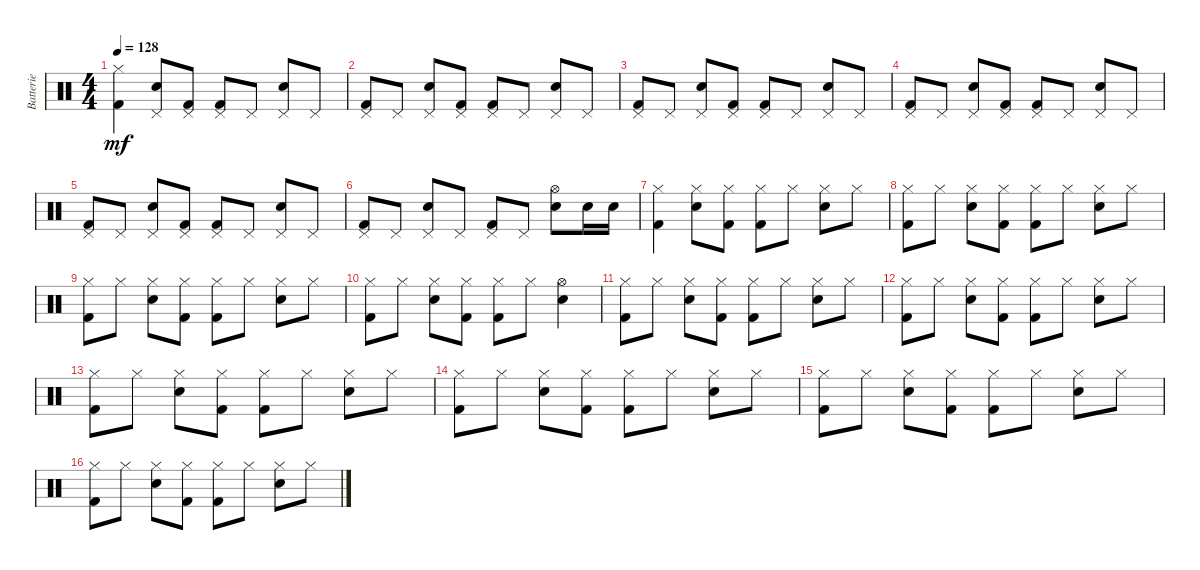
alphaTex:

\track ("Batterie" "Batterie") {instrument percussion}
\staff {score}
\articulation defaults
\ts (4 4)
\tempo 128
\clef neutral
\ks c
("Hi-Hat (closed)" "Kick (hit) 2").4{dy mf} ("Pedal Hi-Hat (hit)" "Snare (hit) 2").8 ("Pedal Hi-Hat (hit)" "Kick (hit) 2").8 ("Pedal Hi-Hat (hit)" "Kick (hit) 2").8 "Pedal Hi-Hat (hit)".8 ("Pedal Hi-Hat (hit)" "Snare (hit) 2").8 "Pedal Hi-Hat (hit)".8 |
("Pedal Hi-Hat (hit)" "Kick (hit) 2").8 "Pedal Hi-Hat (hit)".8 ("Pedal Hi-Hat (hit)" "Snare (hit) 2").8 ("Pedal Hi-Hat (hit)" "Kick (hit) 2").8 ("Pedal Hi-Hat (hit)" "Kick (hit) 2").8 "Pedal Hi-Hat (hit)".8 ("Pedal Hi-Hat (hit)" "Snare (hit) 2").8 "Pedal Hi-Hat (hit)".8 |
("Pedal Hi-Hat (hit)" "Kick (hit) 2").8 "Pedal Hi-Hat (hit)".8 ("Pedal Hi-Hat (hit)" "Snare (hit) 2").8 ("Pedal Hi-Hat (hit)" "Kick (hit) 2").8 ("Pedal Hi-Hat (hit)" "Kick (hit) 2").8 "Pedal Hi-Hat (hit)".8 ("Pedal Hi-Hat (hit)" "Snare (hit) 2").8 "Pedal Hi-Hat (hit)".8 |
("Pedal Hi-Hat (hit)" "Kick (hit) 2").8 "Pedal Hi-Hat (hit)".8 ("Pedal Hi-Hat (hit)" "Snare (hit) 2").8 ("Pedal Hi-Hat (hit)" "Kick (hit) 2").8 ("Pedal Hi-Hat (hit)" "Kick (hit) 2").8 "Pedal Hi-Hat (hit)".8 ("Pedal Hi-Hat (hit)" "Snare (hit) 2").8 "Pedal Hi-Hat (hit)".8 |
("Pedal Hi-Hat (hit)" "Kick (hit) 2").8 "Pedal Hi-Hat (hit)".8 ("Pedal Hi-Hat (hit)" "Snare (hit) 2").8 ("Pedal Hi-Hat (hit)" "Kick (hit) 2").8 ("Pedal Hi-Hat (hit)" "Kick (hit) 2").8 "Pedal Hi-Hat (hit)".8 ("Pedal Hi-Hat (hit)" "Snare (hit) 2").8 "Pedal Hi-Hat (hit)".8 |
("Pedal Hi-Hat (hit)" "Kick (hit) 2").8 "Pedal Hi-Hat (hit)".8 ("Pedal Hi-Hat (hit)" "Snare (hit) 2").8 "Pedal Hi-Hat (hit)".8 ("Pedal Hi-Hat (hit)" "Kick (hit) 2").8 "Pedal Hi-Hat (hit)".8 ("Hi-Hat (open)" "Snare (hit) 2").8 "Snare (hit) 2".16 "Snare (hit) 2".16 |
("Hi-Hat (closed)" "Kick (hit) 2").4 ("Hi-Hat (closed)" "Snare (hit) 2").8 ("Hi-Hat (closed)" "Kick (hit) 2").8 ("Hi-Hat (closed)" "Kick (hit) 2").8 "Hi-Hat (closed)".8 ("Hi-Hat (closed)" "Snare (hit) 2").8 "Hi-Hat (closed)".8 |
("Hi-Hat (closed)" "Kick (hit) 2").8 "Hi-Hat (closed)".8 ("Hi-Hat (closed)" "Snare (hit) 2").8 ("Hi-Hat (closed)" "Kick (hit) 2").8 ("Hi-Hat (closed)" "Kick (hit) 2").8 "Hi-Hat (closed)".8 ("Hi-Hat (closed)" "Snare (hit) 2").8 "Hi-Hat (closed)".8 |
("Hi-Hat (closed)" "Kick (hit) 2").8 "Hi-Hat (closed)".8 ("Hi-Hat (closed)" "Snare (hit) 2").8 ("Hi-Hat (closed)" "Kick (hit) 2").8 ("Hi-Hat (closed)" "Kick (hit) 2").8 "Hi-Hat (closed)".8 ("Hi-Hat (closed)" "Snare (hit) 2").8 "Hi-Hat (closed)".8 |
("Hi-Hat (closed)" "Kick (hit) 2").8 "Hi-Hat (closed)".8 ("Hi-Hat (closed)" "Snare (hit) 2").8 ("Hi-Hat (closed)" "Kick (hit) 2").8 ("Hi-Hat (closed)" "Kick (hit) 2").8 "Hi-Hat (closed)".8 ("Hi-Hat (open)" "Snare (hit) 2").4 |
("Hi-Hat (closed)" "Kick (hit) 2").8 "Hi-Hat (closed)".8 ("Hi-Hat (closed)" "Snare (hit) 2").8 ("Hi-Hat (closed)" "Kick (hit) 2").8 ("Hi-Hat (closed)" "Kick (hit) 2").8 "Hi-Hat (closed)".8 ("Hi-Hat (closed)" "Snare (hit) 2").8 "Hi-Hat (closed)".8 |
("Hi-Hat (closed)" "Kick (hit) 2").8 "Hi-Hat (closed)".8 ("Hi-Hat (closed)" "Snare (hit) 2").8 ("Hi-Hat (closed)" "Kick (hit) 2").8 ("Hi-Hat (closed)" "Kick (hit) 2").8 "Hi-Hat (closed)".8 ("Hi-Hat (closed)" "Snare (hit) 2").8 "Hi-Hat (closed)".8 |
("Hi-Hat (closed)" "Kick (hit) 2").8 "Hi-Hat (closed)".8 ("Hi-Hat (closed)" "Snare (hit) 2").8 ("Hi-Hat (closed)" "Kick (hit) 2").8 ("Hi-Hat (closed)" "Kick (hit) 2").8 "Hi-Hat (closed)".8 ("Hi-Hat (closed)" "Snare (hit) 2").8 "Hi-Hat (closed)".8 |
("Hi-Hat (closed)" "Kick (hit) 2").8 "Hi-Hat (closed)".8 ("Hi-Hat (closed)" "Snare (hit) 2").8 ("Hi-Hat (closed)" "Kick (hit) 2").8 ("Hi-Hat (closed)" "Kick (hit) 2").8 "Hi-Hat (closed)".8 ("Hi-Hat (closed)" "Snare (hit) 2").8 "Hi-Hat (closed)".8 |
("Hi-Hat (closed)" "Kick (hit) 2").8 "Hi-Hat (closed)".8 ("Hi-Hat (closed)" "Snare (hit) 2").8 ("Hi-Hat (closed)" "Kick (hit) 2").8 ("Hi-Hat (closed)" "Kick (hit) 2").8 "Hi-Hat (closed)".8 ("Hi-Hat (closed)" "Snare (hit) 2").8 "Hi-Hat (closed)".8 |
("Hi-Hat (closed)" "Kick (hit) 2").8 "Hi-Hat (closed)".8 ("Hi-Hat (closed)" "Snare (hit) 2").8 ("Hi-Hat (closed)" "Kick (hit) 2").8 ("Hi-Hat (closed)" "Kick (hit) 2").8 "Hi-Hat (closed)".8 ("Hi-Hat (closed)" "Snare (hit) 2").8 "Hi-Hat (closed)".8
